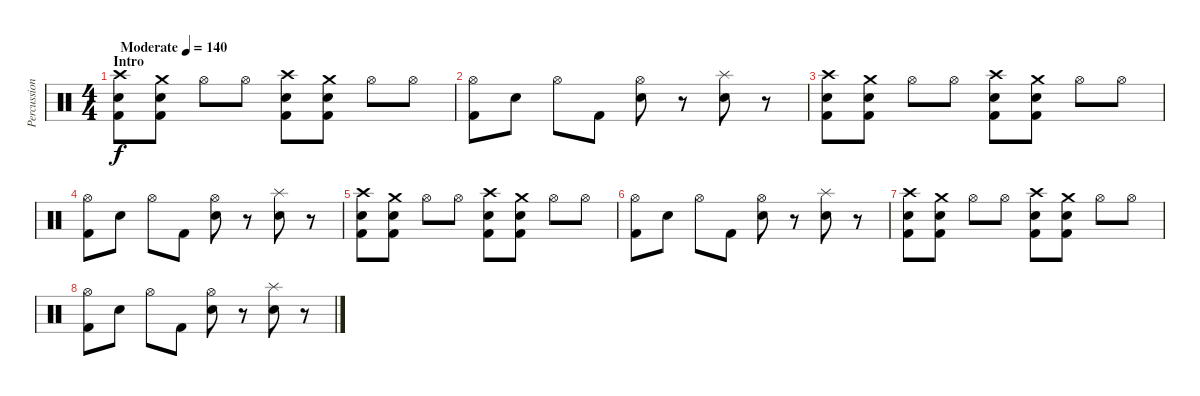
\track ("Percussion" "Percussion") {instrument percussion}
\staff {score}
\articulation defaults
\ts (4 4)
\section ("" "Intro")
\tempo (140 "Moderate")
\clef neutral
\ks c
("Crash high (hit)" "Snare (hit) 2" "Kick (hit) 2").8{dy f} ("Crash medium (hit)" "Snare (hit) 2" "Kick (hit) 2").8 "Hi-Hat (open)".8 "Hi-Hat (open)".8 ("Crash high (hit)" "Snare (hit) 2" "Kick (hit) 2").8 ("Crash medium (hit)" "Snare (hit) 2" "Kick (hit) 2").8 "Hi-Hat (open)".8 "Hi-Hat (open)".8 |
("Hi-Hat (open)" "Kick (hit) 2").8 "Snare (hit) 2".8 "Hi-Hat (open)".8 "Kick (hit) 2".8 ("Hi-Hat (open)" "Snare (hit) 2").8 r.8 ("Splash (hit)" "Snare (hit) 2").8 r.8 |
("Crash high (hit)" "Snare (hit) 2" "Kick (hit) 2").8 ("Crash medium (hit)" "Snare (hit) 2" "Kick (hit) 2").8 "Hi-Hat (open)".8 "Hi-Hat (open)".8 ("Crash high (hit)" "Snare (hit) 2" "Kick (hit) 2").8 ("Crash medium (hit)" "Snare (hit) 2" "Kick (hit) 2").8 "Hi-Hat (open)".8 "Hi-Hat (open)".8 |
("Hi-Hat (open)" "Kick (hit) 2").8 "Snare (hit) 2".8 "Hi-Hat (open)".8 "Kick (hit) 2".8 ("Hi-Hat (open)" "Snare (hit) 2").8 r.8 ("Splash (hit)" "Snare (hit) 2").8 r.8 |
("Crash high (hit)" "Snare (hit) 2" "Kick (hit) 2").8 ("Crash medium (hit)" "Snare (hit) 2" "Kick (hit) 2").8 "Hi-Hat (open)".8 "Hi-Hat (open)".8 ("Crash high (hit)" "Snare (hit) 2" "Kick (hit) 2").8 ("Crash medium (hit)" "Snare (hit) 2" "Kick (hit) 2").8 "Hi-Hat (open)".8 "Hi-Hat (open)".8 |
("Hi-Hat (open)" "Kick (hit) 2").8 "Snare (hit) 2".8 "Hi-Hat (open)".8 "Kick (hit) 2".8 ("Hi-Hat (open)" "Snare (hit) 2").8 r.8 ("Splash (hit)" "Snare (hit) 2").8 r.8 |
("Crash high (hit)" "Snare (hit) 2" "Kick (hit) 2").8 ("Crash medium (hit)" "Snare (hit) 2" "Kick (hit) 2").8 "Hi-Hat (open)".8 "Hi-Hat (open)".8 ("Crash high (hit)" "Snare (hit) 2" "Kick (hit) 2").8 ("Crash medium (hit)" "Snare (hit) 2" "Kick (hit) 2").8 "Hi-Hat (open)".8 "Hi-Hat (open)".8 |
("Hi-Hat (open)" "Kick (hit) 2").8 "Snare (hit) 2".8 "Hi-Hat (open)".8 "Kick (hit) 2".8 ("Hi-Hat (open)" "Snare (hit) 2").8 r.8 ("Splash (hit)" "Snare (hit) 2").8 r.8
